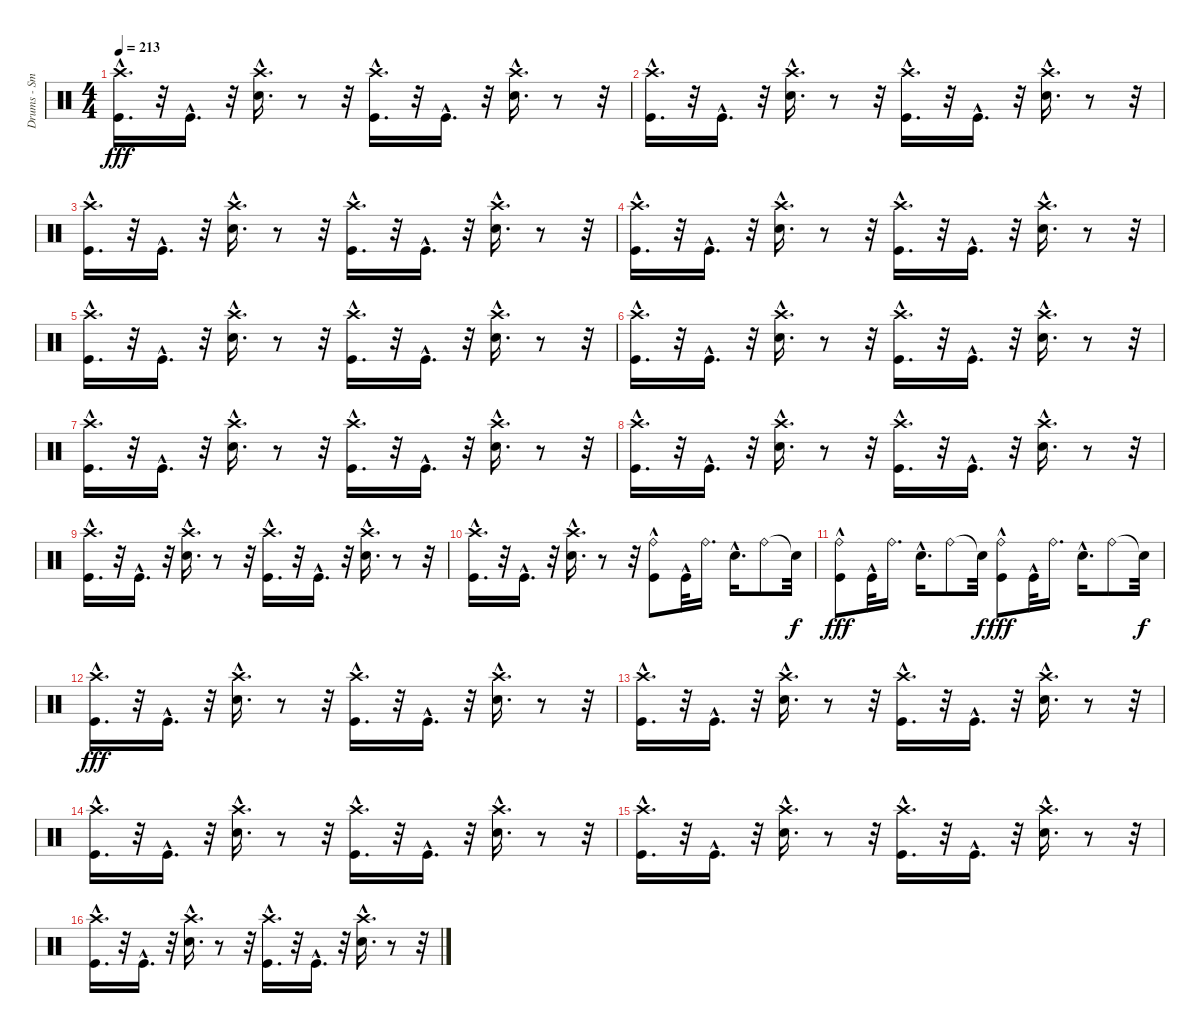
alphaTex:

\track ("Drums - Smelly" "Drums - Sm") {instrument percussion}
\staff {score}
\articulation defaults
\ts (4 4)
\tempo 213
\clef neutral
\ks c
("Crash high (hit)"{hac} "Kick (hit)"{hac}).16{d dy fff} r.32 "Kick (hit)"{hac}.16{d} r.32 ("Crash high (hit)"{hac} "Electric Snare (hit)"{hac}).16{d} r.8 r.32 ("Crash high (hit)"{hac} "Kick (hit)"{hac}).16{d} r.32 "Kick (hit)"{hac}.16{d} r.32 ("Electric Snare (hit)"{hac} "Crash high (hit)"{hac}).16{d} r.8 r.32 |
("Crash high (hit)"{hac} "Kick (hit)"{hac}).16{d} r.32 "Kick (hit)"{hac}.16{d} r.32 ("Crash high (hit)"{hac} "Electric Snare (hit)"{hac}).16{d} r.8 r.32 ("Crash high (hit)"{hac} "Kick (hit)"{hac}).16{d} r.32 "Kick (hit)"{hac}.16{d} r.32 ("Electric Snare (hit)"{hac} "Crash high (hit)"{hac}).16{d} r.8 r.32 |
("Crash high (hit)"{hac} "Kick (hit)"{hac}).16{d} r.32 "Kick (hit)"{hac}.16{d} r.32 ("Crash high (hit)"{hac} "Electric Snare (hit)"{hac}).16{d} r.8 r.32 ("Crash high (hit)"{hac} "Kick (hit)"{hac}).16{d} r.32 "Kick (hit)"{hac}.16{d} r.32 ("Electric Snare (hit)"{hac} "Crash high (hit)"{hac}).16{d} r.8 r.32 |
("Crash high (hit)"{hac} "Kick (hit)"{hac}).16{d} r.32 "Kick (hit)"{hac}.16{d} r.32 ("Crash high (hit)"{hac} "Electric Snare (hit)"{hac}).16{d} r.8 r.32 ("Kick (hit)"{hac} "Crash high (hit)"{hac}).16{d} r.32 "Kick (hit)"{hac}.16{d} r.32 ("Electric Snare (hit)"{hac} "Crash high (hit)"{hac}).16{d} r.8 r.32 |
("Crash high (hit)"{hac} "Kick (hit)"{hac}).16{d} r.32 "Kick (hit)"{hac}.16{d} r.32 ("Crash high (hit)"{hac} "Electric Snare (hit)"{hac}).16{d} r.8 r.32 ("Crash high (hit)"{hac} "Kick (hit)"{hac}).16{d} r.32 "Kick (hit)"{hac}.16{d} r.32 ("Electric Snare (hit)"{hac} "Crash high (hit)"{hac}).16{d} r.8 r.32 |
("Crash high (hit)"{hac} "Kick (hit)"{hac}).16{d} r.32 "Kick (hit)"{hac}.16{d} r.32 ("Crash high (hit)"{hac} "Electric Snare (hit)"{hac}).16{d} r.8 r.32 ("Kick (hit)"{hac} "Crash high (hit)"{hac}).16{d} r.32 "Kick (hit)"{hac}.16{d} r.32 ("Electric Snare (hit)"{hac} "Crash high (hit)"{hac}).16{d} r.8 r.32 |
("Crash high (hit)"{hac} "Kick (hit)"{hac}).16{d} r.32 "Kick (hit)"{hac}.16{d} r.32 ("Crash high (hit)"{hac} "Electric Snare (hit)"{hac}).16{d} r.8 r.32 ("Crash high (hit)"{hac} "Kick (hit)"{hac}).16{d} r.32 "Kick (hit)"{hac}.16{d} r.32 ("Electric Snare (hit)"{hac} "Crash high (hit)"{hac}).16{d} r.8 r.32 |
("Crash high (hit)"{hac} "Kick (hit)"{hac}).16{d} r.32 "Kick (hit)"{hac}.16{d} r.32 ("Crash high (hit)"{hac} "Electric Snare (hit)"{hac}).16{d} r.8 r.32 ("Kick (hit)"{hac} "Crash high (hit)"{hac}).16{d} r.32 "Kick (hit)"{hac}.16{d} r.32 ("Electric Snare (hit)"{hac} "Crash high (hit)"{hac}).16{d} r.8 r.32 |
("Crash high (hit)"{hac} "Kick (hit)"{hac}).16{d} r.32 "Kick (hit)"{hac}.16{d} r.32 ("Crash high (hit)"{hac} "Electric Snare (hit)"{hac}).16{d} r.8 r.32 ("Crash high (hit)"{hac} "Kick (hit)"{hac}).16{d} r.32 "Kick (hit)"{hac}.16{d} r.32 ("Electric Snare (hit)"{hac} "Crash high (hit)"{hac}).16{d} r.8 r.32 |
("Crash high (hit)"{hac} "Kick (hit)"{hac}).16{d} r.32 "Kick (hit)"{hac}.16{d} r.32 ("Crash high (hit)"{hac} "Electric Snare (hit)"{hac}).16{d} r.8 r.32 ("Ride (bell)" "Kick (hit)"{hac}).8 "Kick (hit)"{hac}.32 "Ride (bell)".16{d} "Electric Snare (hit)"{hac}.16{d} "Ride (bell)".8 "Snare (hit)"{t}.32{dy f} |
("Ride (bell)" "Kick (hit)"{hac}).8{dy fff} "Kick (hit)"{hac}.32 "Ride (bell)".16{d} "Electric Snare (hit)"{hac}.16{d} "Ride (bell)".8 "Snare (hit)"{t}.32{dy f} ("Ride (bell)" "Kick (hit)"{hac}).8{dy fff} "Kick (hit)"{hac}.32 "Ride (bell)".16{d} "Electric Snare (hit)"{hac}.16{d} "Ride (bell)".8 "Snare (hit)"{t}.32{dy f} |
("Crash high (hit)"{hac} "Kick (hit)"{hac}).16{d dy fff} r.32 "Kick (hit)"{hac}.16{d} r.32 ("Crash high (hit)"{hac} "Electric Snare (hit)"{hac}).16{d} r.8 r.32 ("Kick (hit)"{hac} "Crash high (hit)"{hac}).16{d} r.32 "Kick (hit)"{hac}.16{d} r.32 ("Electric Snare (hit)"{hac} "Crash high (hit)"{hac}).16{d} r.8 r.32 |
("Crash high (hit)"{hac} "Kick (hit)"{hac}).16{d} r.32 "Kick (hit)"{hac}.16{d} r.32 ("Crash high (hit)"{hac} "Electric Snare (hit)"{hac}).16{d} r.8 r.32 ("Crash high (hit)"{hac} "Kick (hit)"{hac}).16{d} r.32 "Kick (hit)"{hac}.16{d} r.32 ("Electric Snare (hit)"{hac} "Crash high (hit)"{hac}).16{d} r.8 r.32 |
("Crash high (hit)"{hac} "Kick (hit)"{hac}).16{d} r.32 "Kick (hit)"{hac}.16{d} r.32 ("Crash high (hit)"{hac} "Electric Snare (hit)"{hac}).16{d} r.8 r.32 ("Kick (hit)"{hac} "Crash high (hit)"{hac}).16{d} r.32 "Kick (hit)"{hac}.16{d} r.32 ("Electric Snare (hit)"{hac} "Crash high (hit)"{hac}).16{d} r.8 r.32 |
("Crash high (hit)"{hac} "Kick (hit)"{hac}).16{d} r.32 "Kick (hit)"{hac}.16{d} r.32 ("Crash high (hit)"{hac} "Electric Snare (hit)"{hac}).16{d} r.8 r.32 ("Crash high (hit)"{hac} "Kick (hit)"{hac}).16{d} r.32 "Kick (hit)"{hac}.16{d} r.32 ("Electric Snare (hit)"{hac} "Crash high (hit)"{hac}).16{d} r.8 r.32 |
("Crash high (hit)"{hac} "Kick (hit)"{hac}).16{d} r.32 "Kick (hit)"{hac}.16{d} r.32 ("Crash high (hit)"{hac} "Electric Snare (hit)"{hac}).16{d} r.8 r.32 ("Kick (hit)"{hac} "Crash high (hit)"{hac}).16{d} r.32 "Kick (hit)"{hac}.16{d} r.32 ("Electric Snare (hit)"{hac} "Crash high (hit)"{hac}).16{d} r.8 r.32
